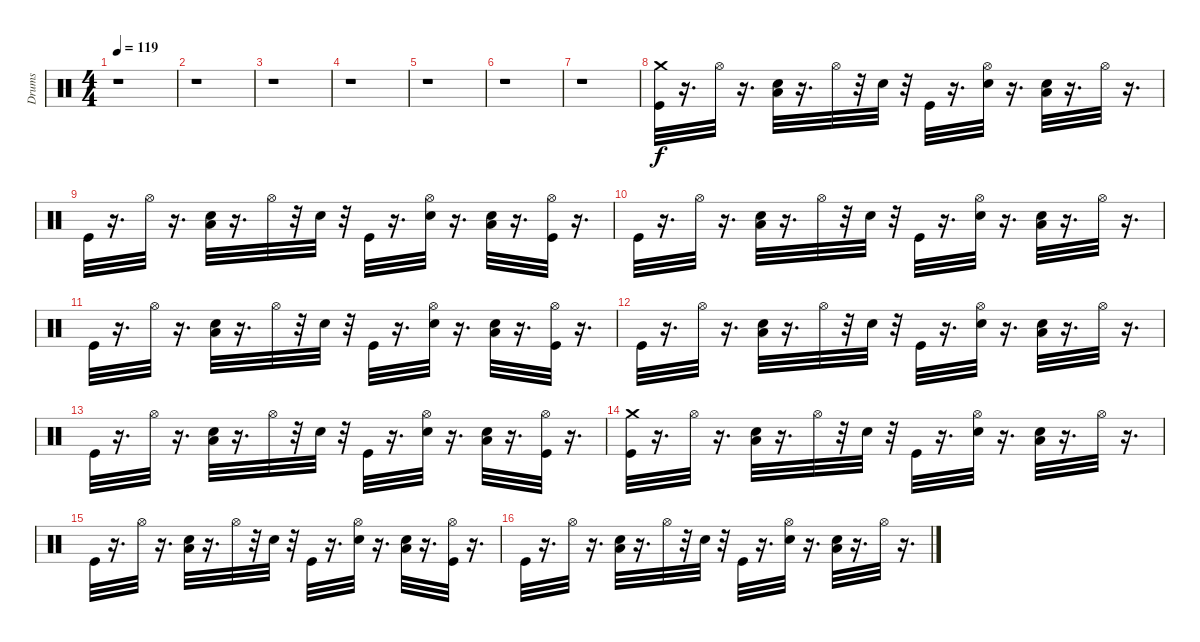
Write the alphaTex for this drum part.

\track ("Drums" "Drums") {instrument percussion}
\staff {score}
\articulation defaults
\ts (4 4)
\tempo 119
\clef neutral
\ks c
r.1{dy f} |
r.1 |
r.1 |
r.1 |
r.1 |
r.1 |
r.1 |
("Kick (hit)" "Crash medium (hit)").32 r.16{d} "Hi-Hat (open)".32 r.16{d} ("Low Floor Tom (hit)" "Hand Clap (hit)").32 r.16{d} "Hi-Hat (open)".32 r.32 "Hand Clap (hit)".32 r.32 "Kick (hit)".32 r.16{d} ("Hi-Hat (open)" "Hand Clap (hit)").32 r.16{d} ("Low Floor Tom (hit)" "Hand Clap (hit)").32 r.16{d} "Hi-Hat (open)".32 r.16{d} |
"Kick (hit)".32 r.16{d} "Hi-Hat (open)".32 r.16{d} ("Low Floor Tom (hit)" "Hand Clap (hit)").32 r.16{d} "Hi-Hat (open)".32 r.32 "Hand Clap (hit)".32 r.32 "Kick (hit)".32 r.16{d} ("Hi-Hat (open)" "Hand Clap (hit)").32 r.16{d} ("Low Floor Tom (hit)" "Hand Clap (hit)").32 r.16{d} ("Kick (hit)" "Hi-Hat (open)").32 r.16{d} |
"Kick (hit)".32 r.16{d} "Hi-Hat (open)".32 r.16{d} ("Low Floor Tom (hit)" "Hand Clap (hit)").32 r.16{d} "Hi-Hat (open)".32 r.32 "Hand Clap (hit)".32 r.32 "Kick (hit)".32 r.16{d} ("Hi-Hat (open)" "Hand Clap (hit)").32 r.16{d} ("Low Floor Tom (hit)" "Hand Clap (hit)").32 r.16{d} "Hi-Hat (open)".32 r.16{d} |
"Kick (hit)".32 r.16{d} "Hi-Hat (open)".32 r.16{d} ("Low Floor Tom (hit)" "Hand Clap (hit)").32 r.16{d} "Hi-Hat (open)".32 r.32 "Hand Clap (hit)".32 r.32 "Kick (hit)".32 r.16{d} ("Hi-Hat (open)" "Hand Clap (hit)").32 r.16{d} ("Low Floor Tom (hit)" "Hand Clap (hit)").32 r.16{d} ("Kick (hit)" "Hi-Hat (open)").32 r.16{d} |
"Kick (hit)".32 r.16{d} "Hi-Hat (open)".32 r.16{d} ("Low Floor Tom (hit)" "Hand Clap (hit)").32 r.16{d} "Hi-Hat (open)".32 r.32 "Hand Clap (hit)".32 r.32 "Kick (hit)".32 r.16{d} ("Hi-Hat (open)" "Hand Clap (hit)").32 r.16{d} ("Low Floor Tom (hit)" "Hand Clap (hit)").32 r.16{d} "Hi-Hat (open)".32 r.16{d} |
"Kick (hit)".32 r.16{d} "Hi-Hat (open)".32 r.16{d} ("Low Floor Tom (hit)" "Hand Clap (hit)").32 r.16{d} "Hi-Hat (open)".32 r.32 "Hand Clap (hit)".32 r.32 "Kick (hit)".32 r.16{d} ("Hi-Hat (open)" "Hand Clap (hit)").32 r.16{d} ("Low Floor Tom (hit)" "Hand Clap (hit)").32 r.16{d} ("Kick (hit)" "Hi-Hat (open)").32 r.16{d} |
("Crash medium (hit)" "Kick (hit)").32 r.16{d} "Hi-Hat (open)".32 r.16{d} ("Low Floor Tom (hit)" "Hand Clap (hit)").32 r.16{d} "Hi-Hat (open)".32 r.32 "Hand Clap (hit)".32 r.32 "Kick (hit)".32 r.16{d} ("Hi-Hat (open)" "Hand Clap (hit)").32 r.16{d} ("Low Floor Tom (hit)" "Hand Clap (hit)").32 r.16{d} "Hi-Hat (open)".32 r.16{d} |
"Kick (hit)".32 r.16{d} "Hi-Hat (open)".32 r.16{d} ("Low Floor Tom (hit)" "Hand Clap (hit)").32 r.16{d} "Hi-Hat (open)".32 r.32 "Hand Clap (hit)".32 r.32 "Kick (hit)".32 r.16{d} ("Hi-Hat (open)" "Hand Clap (hit)").32 r.16{d} ("Low Floor Tom (hit)" "Hand Clap (hit)").32 r.16{d} ("Kick (hit)" "Hi-Hat (open)").32 r.16{d} |
"Kick (hit)".32 r.16{d} "Hi-Hat (open)".32 r.16{d} ("Low Floor Tom (hit)" "Hand Clap (hit)").32 r.16{d} "Hi-Hat (open)".32 r.32 "Hand Clap (hit)".32 r.32 "Kick (hit)".32 r.16{d} ("Hi-Hat (open)" "Hand Clap (hit)").32 r.16{d} ("Low Floor Tom (hit)" "Hand Clap (hit)").32 r.16{d} "Hi-Hat (open)".32 r.16{d}
